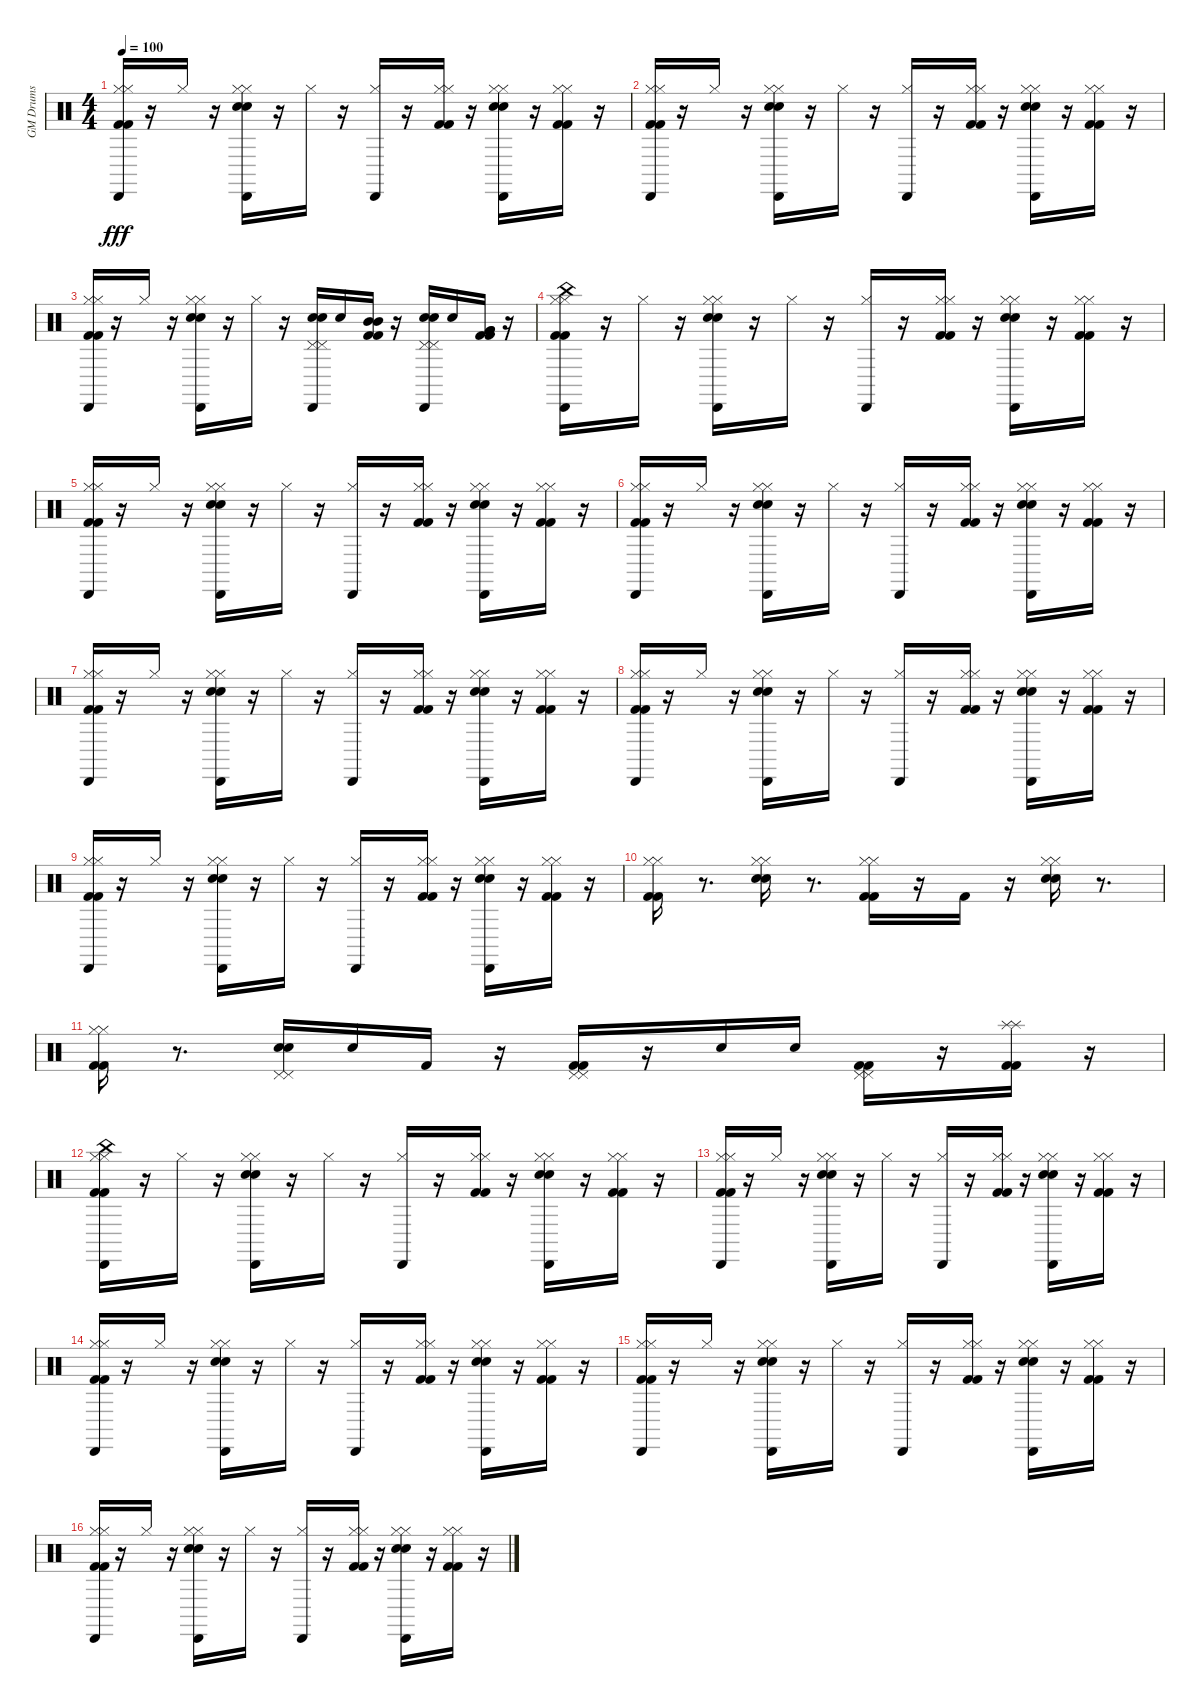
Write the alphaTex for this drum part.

\track ("GM Drums" "GM Drums") {instrument percussion}
\staff {score}
\articulation defaults
\ts (4 4)
\tempo 100
\clef neutral
\ks c
("Kick (hit) 2" "Kick (hit) 2" "Hi-Hat (closed)" "Hi-Hat (closed)" "Cabasa (hit)").16{dy fff} r.16 "Hi-Hat (closed)".16 r.16 ("Snare (hit) 2" "Snare (hit) 2" "Hi-Hat (closed)" "Hi-Hat (closed)" "Cabasa (hit)").16 r.16 "Hi-Hat (closed)".16 r.16 ("Hi-Hat (closed)" "Cabasa (hit)").16 r.16 ("Kick (hit) 2" "Kick (hit) 2" "Hi-Hat (closed)" "Hi-Hat (closed)").16 r.16 ("Snare (hit) 2" "Snare (hit) 2" "Hi-Hat (closed)" "Hi-Hat (closed)" "Cabasa (hit)").16 r.16 ("Kick (hit) 2" "Kick (hit) 2" "Hi-Hat (closed)" "Hi-Hat (closed)").16 r.16 |
("Kick (hit) 2" "Kick (hit) 2" "Hi-Hat (closed)" "Hi-Hat (closed)" "Cabasa (hit)").16 r.16 "Hi-Hat (closed)".16 r.16 ("Snare (hit) 2" "Snare (hit) 2" "Hi-Hat (closed)" "Hi-Hat (closed)" "Cabasa (hit)").16 r.16 "Hi-Hat (closed)".16 r.16 ("Hi-Hat (closed)" "Cabasa (hit)").16 r.16 ("Kick (hit) 2" "Kick (hit) 2" "Hi-Hat (closed)" "Hi-Hat (closed)").16 r.16 ("Snare (hit) 2" "Snare (hit) 2" "Hi-Hat (closed)" "Hi-Hat (closed)" "Cabasa (hit)").16 r.16 ("Kick (hit) 2" "Kick (hit) 2" "Hi-Hat (closed)" "Hi-Hat (closed)").16 r.16 |
("Kick (hit) 2" "Kick (hit) 2" "Hi-Hat (closed)" "Hi-Hat (closed)" "Cabasa (hit)").16 r.16 "Hi-Hat (closed)".16 r.16 ("Snare (hit) 2" "Snare (hit) 2" "Hi-Hat (closed)" "Hi-Hat (closed)" "Cabasa (hit)").16 r.16 "Hi-Hat (closed)".16 r.16 ("Snare (hit) 2" "Snare (hit) 2" "Pedal Hi-Hat (hit)" "Pedal Hi-Hat (hit)" "Cabasa (hit)").16 "Snare (hit) 2".16 ("Kick (hit) 2" "Kick (hit) 2" "Mid Tom (hit)" "Mid Tom (hit)").16 r.16 ("Snare (hit) 2" "Snare (hit) 2" "Pedal Hi-Hat (hit)" "Pedal Hi-Hat (hit)" "Cabasa (hit)").16 "Snare (hit) 2".16 ("Kick (hit) 2" "Kick (hit) 2" "Very Low Tom (hit)" "Very Low Tom (hit)").16 r.16 |
("Kick (hit) 2" "Kick (hit) 2" "Hi-Hat (closed)" "Hi-Hat (closed)" "China (hit)" "Cabasa (hit)").16 r.16 "Hi-Hat (closed)".16 r.16 ("Snare (hit) 2" "Snare (hit) 2" "Hi-Hat (closed)" "Hi-Hat (closed)" "Cabasa (hit)").16 r.16 "Hi-Hat (closed)".16 r.16 ("Hi-Hat (closed)" "Cabasa (hit)").16 r.16 ("Kick (hit) 2" "Kick (hit) 2" "Hi-Hat (closed)" "Hi-Hat (closed)").16 r.16 ("Snare (hit) 2" "Snare (hit) 2" "Hi-Hat (closed)" "Hi-Hat (closed)" "Cabasa (hit)").16 r.16 ("Kick (hit) 2" "Kick (hit) 2" "Hi-Hat (closed)" "Hi-Hat (closed)").16 r.16 |
("Kick (hit) 2" "Kick (hit) 2" "Hi-Hat (closed)" "Hi-Hat (closed)" "Cabasa (hit)").16 r.16 "Hi-Hat (closed)".16 r.16 ("Snare (hit) 2" "Snare (hit) 2" "Hi-Hat (closed)" "Hi-Hat (closed)" "Cabasa (hit)").16 r.16 "Hi-Hat (closed)".16 r.16 ("Hi-Hat (closed)" "Cabasa (hit)").16 r.16 ("Kick (hit) 2" "Kick (hit) 2" "Hi-Hat (closed)" "Hi-Hat (closed)").16 r.16 ("Snare (hit) 2" "Snare (hit) 2" "Hi-Hat (closed)" "Hi-Hat (closed)" "Cabasa (hit)").16 r.16 ("Kick (hit) 2" "Kick (hit) 2" "Hi-Hat (closed)" "Hi-Hat (closed)").16 r.16 |
("Kick (hit) 2" "Kick (hit) 2" "Hi-Hat (closed)" "Hi-Hat (closed)" "Cabasa (hit)").16 r.16 "Hi-Hat (closed)".16 r.16 ("Snare (hit) 2" "Snare (hit) 2" "Hi-Hat (closed)" "Hi-Hat (closed)" "Cabasa (hit)").16 r.16 "Hi-Hat (closed)".16 r.16 ("Hi-Hat (closed)" "Cabasa (hit)").16 r.16 ("Kick (hit) 2" "Kick (hit) 2" "Hi-Hat (closed)" "Hi-Hat (closed)").16 r.16 ("Snare (hit) 2" "Snare (hit) 2" "Hi-Hat (closed)" "Hi-Hat (closed)" "Cabasa (hit)").16 r.16 ("Kick (hit) 2" "Kick (hit) 2" "Hi-Hat (closed)" "Hi-Hat (closed)").16 r.16 |
("Kick (hit) 2" "Kick (hit) 2" "Hi-Hat (closed)" "Hi-Hat (closed)" "Cabasa (hit)").16 r.16 "Hi-Hat (closed)".16 r.16 ("Snare (hit) 2" "Snare (hit) 2" "Hi-Hat (closed)" "Hi-Hat (closed)" "Cabasa (hit)").16 r.16 "Hi-Hat (closed)".16 r.16 ("Hi-Hat (closed)" "Cabasa (hit)").16 r.16 ("Kick (hit) 2" "Kick (hit) 2" "Hi-Hat (closed)" "Hi-Hat (closed)").16 r.16 ("Snare (hit) 2" "Snare (hit) 2" "Hi-Hat (closed)" "Hi-Hat (closed)" "Cabasa (hit)").16 r.16 ("Kick (hit) 2" "Kick (hit) 2" "Hi-Hat (closed)" "Hi-Hat (closed)").16 r.16 |
("Kick (hit) 2" "Kick (hit) 2" "Hi-Hat (closed)" "Hi-Hat (closed)" "Cabasa (hit)").16 r.16 "Hi-Hat (closed)".16 r.16 ("Snare (hit) 2" "Snare (hit) 2" "Hi-Hat (closed)" "Hi-Hat (closed)" "Cabasa (hit)").16 r.16 "Hi-Hat (closed)".16 r.16 ("Hi-Hat (closed)" "Cabasa (hit)").16 r.16 ("Kick (hit) 2" "Kick (hit) 2" "Hi-Hat (closed)" "Hi-Hat (closed)").16 r.16 ("Snare (hit) 2" "Snare (hit) 2" "Hi-Hat (closed)" "Hi-Hat (closed)" "Cabasa (hit)").16 r.16 ("Kick (hit) 2" "Kick (hit) 2" "Hi-Hat (closed)" "Hi-Hat (closed)").16 r.16 |
("Kick (hit) 2" "Kick (hit) 2" "Hi-Hat (closed)" "Hi-Hat (closed)" "Cabasa (hit)").16 r.16 "Hi-Hat (closed)".16 r.16 ("Snare (hit) 2" "Snare (hit) 2" "Hi-Hat (closed)" "Hi-Hat (closed)" "Cabasa (hit)").16 r.16 "Hi-Hat (closed)".16 r.16 ("Hi-Hat (closed)" "Cabasa (hit)").16 r.16 ("Kick (hit) 2" "Kick (hit) 2" "Hi-Hat (closed)" "Hi-Hat (closed)").16 r.16 ("Snare (hit) 2" "Snare (hit) 2" "Hi-Hat (closed)" "Hi-Hat (closed)" "Cabasa (hit)").16 r.16 ("Kick (hit) 2" "Kick (hit) 2" "Hi-Hat (closed)" "Hi-Hat (closed)").16 r.16 |
("Kick (hit) 2" "Kick (hit) 2" "Hi-Hat (closed)" "Hi-Hat (closed)").16 r.8{d} ("Snare (hit) 2" "Snare (hit) 2" "Hi-Hat (closed)" "Hi-Hat (closed)").16 r.8{d} ("Kick (hit) 2" "Kick (hit) 2" "Hi-Hat (closed)" "Hi-Hat (closed)").16 r.16 "Kick (hit) 2".16 r.16 ("Snare (hit) 2" "Snare (hit) 2" "Hi-Hat (closed)" "Hi-Hat (closed)").16 r.8{d} |
("Kick (hit) 2" "Kick (hit) 2" "Hi-Hat (closed)" "Hi-Hat (closed)").16 r.8{d} ("Snare (hit) 2" "Snare (hit) 2" "Pedal Hi-Hat (hit)" "Pedal Hi-Hat (hit)").16 "Snare (hit) 2".16 "Kick (hit) 2".16 r.16 ("Kick (hit) 2" "Kick (hit) 2" "Pedal Hi-Hat (hit)" "Pedal Hi-Hat (hit)").16 r.16 "Snare (hit) 2".16 "Snare (hit) 2".16 ("Kick (hit) 2" "Kick (hit) 2" "Pedal Hi-Hat (hit)" "Pedal Hi-Hat (hit)").16 r.16 ("Kick (hit) 2" "Kick (hit) 2" "Splash (hit)" "Splash (hit)").16 r.16 |
("Kick (hit) 2" "Kick (hit) 2" "Hi-Hat (closed)" "Hi-Hat (closed)" "China (hit)" "Cabasa (hit)").16 r.16 "Hi-Hat (closed)".16 r.16 ("Snare (hit) 2" "Snare (hit) 2" "Hi-Hat (closed)" "Hi-Hat (closed)" "Cabasa (hit)").16 r.16 "Hi-Hat (closed)".16 r.16 ("Hi-Hat (closed)" "Cabasa (hit)").16 r.16 ("Kick (hit) 2" "Kick (hit) 2" "Hi-Hat (closed)" "Hi-Hat (closed)").16 r.16 ("Snare (hit) 2" "Snare (hit) 2" "Hi-Hat (closed)" "Hi-Hat (closed)" "Cabasa (hit)").16 r.16 ("Kick (hit) 2" "Kick (hit) 2" "Hi-Hat (closed)" "Hi-Hat (closed)").16 r.16 |
("Kick (hit) 2" "Kick (hit) 2" "Hi-Hat (closed)" "Hi-Hat (closed)" "Cabasa (hit)").16 r.16 "Hi-Hat (closed)".16 r.16 ("Snare (hit) 2" "Snare (hit) 2" "Hi-Hat (closed)" "Hi-Hat (closed)" "Cabasa (hit)").16 r.16 "Hi-Hat (closed)".16 r.16 ("Hi-Hat (closed)" "Cabasa (hit)").16 r.16 ("Kick (hit) 2" "Kick (hit) 2" "Hi-Hat (closed)" "Hi-Hat (closed)").16 r.16 ("Snare (hit) 2" "Snare (hit) 2" "Hi-Hat (closed)" "Hi-Hat (closed)" "Cabasa (hit)").16 r.16 ("Kick (hit) 2" "Kick (hit) 2" "Hi-Hat (closed)" "Hi-Hat (closed)").16 r.16 |
("Kick (hit) 2" "Kick (hit) 2" "Hi-Hat (closed)" "Hi-Hat (closed)" "Cabasa (hit)").16 r.16 "Hi-Hat (closed)".16 r.16 ("Snare (hit) 2" "Snare (hit) 2" "Hi-Hat (closed)" "Hi-Hat (closed)" "Cabasa (hit)").16 r.16 "Hi-Hat (closed)".16 r.16 ("Hi-Hat (closed)" "Cabasa (hit)").16 r.16 ("Kick (hit) 2" "Kick (hit) 2" "Hi-Hat (closed)" "Hi-Hat (closed)").16 r.16 ("Snare (hit) 2" "Snare (hit) 2" "Hi-Hat (closed)" "Hi-Hat (closed)" "Cabasa (hit)").16 r.16 ("Kick (hit) 2" "Kick (hit) 2" "Hi-Hat (closed)" "Hi-Hat (closed)").16 r.16 |
("Kick (hit) 2" "Kick (hit) 2" "Hi-Hat (closed)" "Hi-Hat (closed)" "Cabasa (hit)").16 r.16 "Hi-Hat (closed)".16 r.16 ("Snare (hit) 2" "Snare (hit) 2" "Hi-Hat (closed)" "Hi-Hat (closed)" "Cabasa (hit)").16 r.16 "Hi-Hat (closed)".16 r.16 ("Hi-Hat (closed)" "Cabasa (hit)").16 r.16 ("Kick (hit) 2" "Kick (hit) 2" "Hi-Hat (closed)" "Hi-Hat (closed)").16 r.16 ("Snare (hit) 2" "Snare (hit) 2" "Hi-Hat (closed)" "Hi-Hat (closed)" "Cabasa (hit)").16 r.16 ("Kick (hit) 2" "Kick (hit) 2" "Hi-Hat (closed)" "Hi-Hat (closed)").16 r.16 |
("Kick (hit) 2" "Kick (hit) 2" "Hi-Hat (closed)" "Hi-Hat (closed)" "Cabasa (hit)").16 r.16 "Hi-Hat (closed)".16 r.16 ("Snare (hit) 2" "Snare (hit) 2" "Hi-Hat (closed)" "Hi-Hat (closed)" "Cabasa (hit)").16 r.16 "Hi-Hat (closed)".16 r.16 ("Hi-Hat (closed)" "Cabasa (hit)").16 r.16 ("Kick (hit) 2" "Kick (hit) 2" "Hi-Hat (closed)" "Hi-Hat (closed)").16 r.16 ("Snare (hit) 2" "Snare (hit) 2" "Hi-Hat (closed)" "Hi-Hat (closed)" "Cabasa (hit)").16 r.16 ("Kick (hit) 2" "Kick (hit) 2" "Hi-Hat (closed)" "Hi-Hat (closed)").16 r.16
